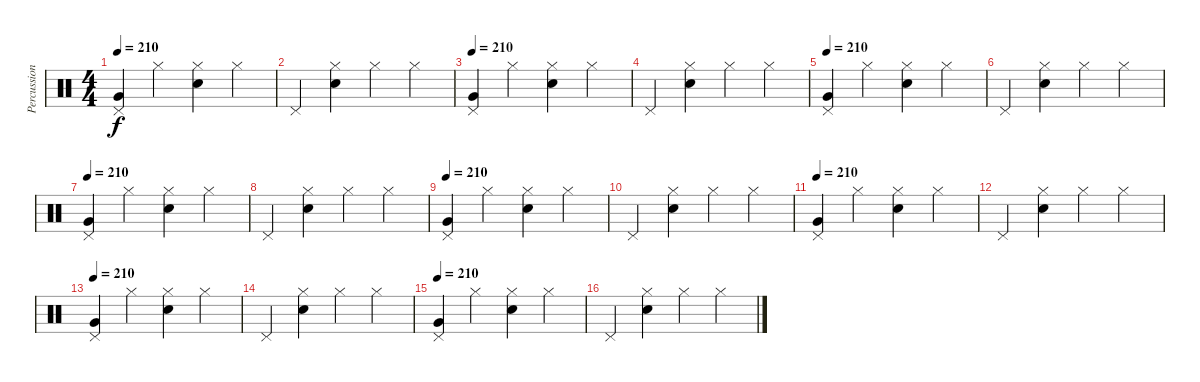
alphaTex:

\track ("Percussion" "Percussion") {instrument percussion}
\staff {score}
\articulation defaults
\ts (4 4)
\tempo 210
\clef neutral
\ks c
("Pedal Hi-Hat (hit)" "Very Low Tom (hit)").4{dy f volume 11} "Hi-Hat (closed)".4 ("Hi-Hat (closed)" "Snare (hit) 2").4 "Hi-Hat (closed)".4 |
"Pedal Hi-Hat (hit)".4 ("Hi-Hat (closed)" "Snare (hit) 2").4 "Hi-Hat (closed)".4 "Hi-Hat (closed)".4 |
\tempo 210
("Pedal Hi-Hat (hit)" "Very Low Tom (hit)").4 "Hi-Hat (closed)".4 ("Hi-Hat (closed)" "Snare (hit) 2").4 "Hi-Hat (closed)".4 |
"Pedal Hi-Hat (hit)".4 ("Hi-Hat (closed)" "Snare (hit) 2").4 "Hi-Hat (closed)".4 "Hi-Hat (closed)".4 |
\tempo 210
("Pedal Hi-Hat (hit)" "Very Low Tom (hit)").4{volume 11} "Hi-Hat (closed)".4 ("Hi-Hat (closed)" "Snare (hit) 2").4 "Hi-Hat (closed)".4 |
"Pedal Hi-Hat (hit)".4 ("Hi-Hat (closed)" "Snare (hit) 2").4 "Hi-Hat (closed)".4 "Hi-Hat (closed)".4 |
\tempo 210
("Pedal Hi-Hat (hit)" "Very Low Tom (hit)").4 "Hi-Hat (closed)".4 ("Hi-Hat (closed)" "Snare (hit) 2").4 "Hi-Hat (closed)".4 |
"Pedal Hi-Hat (hit)".4 ("Hi-Hat (closed)" "Snare (hit) 2").4 "Hi-Hat (closed)".4 "Hi-Hat (closed)".4 |
\tempo 210
("Pedal Hi-Hat (hit)" "Very Low Tom (hit)").4{volume 11} "Hi-Hat (closed)".4 ("Hi-Hat (closed)" "Snare (hit) 2").4 "Hi-Hat (closed)".4 |
"Pedal Hi-Hat (hit)".4 ("Hi-Hat (closed)" "Snare (hit) 2").4 "Hi-Hat (closed)".4 "Hi-Hat (closed)".4 |
\tempo 210
("Pedal Hi-Hat (hit)" "Very Low Tom (hit)").4 "Hi-Hat (closed)".4 ("Hi-Hat (closed)" "Snare (hit) 2").4 "Hi-Hat (closed)".4 |
"Pedal Hi-Hat (hit)".4 ("Hi-Hat (closed)" "Snare (hit) 2").4 "Hi-Hat (closed)".4 "Hi-Hat (closed)".4 |
\tempo 210
("Pedal Hi-Hat (hit)" "Very Low Tom (hit)").4{volume 11} "Hi-Hat (closed)".4 ("Hi-Hat (closed)" "Snare (hit) 2").4 "Hi-Hat (closed)".4 |
"Pedal Hi-Hat (hit)".4 ("Hi-Hat (closed)" "Snare (hit) 2").4 "Hi-Hat (closed)".4 "Hi-Hat (closed)".4 |
\tempo 210
("Pedal Hi-Hat (hit)" "Very Low Tom (hit)").4 "Hi-Hat (closed)".4 ("Hi-Hat (closed)" "Snare (hit) 2").4 "Hi-Hat (closed)".4 |
"Pedal Hi-Hat (hit)".4 ("Hi-Hat (closed)" "Snare (hit) 2").4 "Hi-Hat (closed)".4 "Hi-Hat (closed)".4
